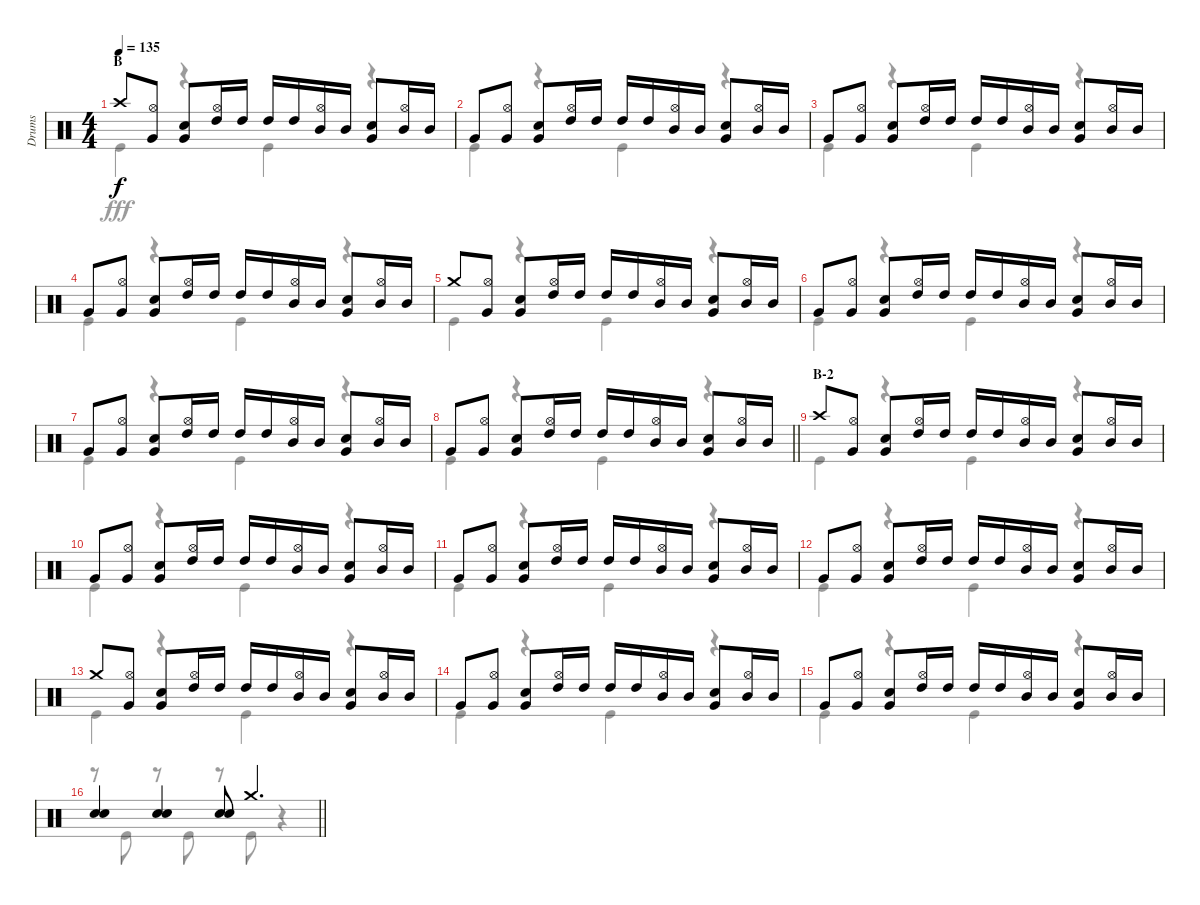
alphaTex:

\track ("Drums" "Drums") {instrument percussion}
\staff {score}
\articulation defaults
\voice
\ts (4 4)
\section ("" "B")
\tempo 135
\clef neutral
\ks c "Crash high (hit)".8{dy f}
("Hi-Hat (open)" "Very Low Tom (hit)").8 ("Snare (hit) 2" "Very Low Tom (hit)").8 ("Hi-Hat (open)" "High Tom (hit)").16 "High Tom (hit)".16 "High Tom (hit)".16 "High Tom (hit)".16 ("Hi-Hat (open)" "Mid Tom (hit)").16 "Mid Tom (hit)".16 ("Snare (hit) 2" "Very Low Tom (hit)").8 ("Hi-Hat (open)" "Mid Tom (hit)").16 "Mid Tom (hit)".16 |
"Very Low Tom (hit)".8 ("Hi-Hat (open)" "Very Low Tom (hit)").8 ("Snare (hit) 2" "Very Low Tom (hit)").8 ("Hi-Hat (open)" "High Tom (hit)").16 "High Tom (hit)".16 "High Tom (hit)".16 "High Tom (hit)".16 ("Hi-Hat (open)" "Mid Tom (hit)").16 "Mid Tom (hit)".16 ("Snare (hit) 2" "Very Low Tom (hit)").8 ("Hi-Hat (open)" "Mid Tom (hit)").16 "Mid Tom (hit)".16 |
"Very Low Tom (hit)".8 ("Hi-Hat (open)" "Very Low Tom (hit)").8 ("Snare (hit) 2" "Very Low Tom (hit)").8 ("Hi-Hat (open)" "High Tom (hit)").16 "High Tom (hit)".16 "High Tom (hit)".16 "High Tom (hit)".16 ("Hi-Hat (open)" "Mid Tom (hit)").16 "Mid Tom (hit)".16 ("Snare (hit) 2" "Very Low Tom (hit)").8 ("Hi-Hat (open)" "Mid Tom (hit)").16 "Mid Tom (hit)".16 |
"Very Low Tom (hit)".8 ("Hi-Hat (open)" "Very Low Tom (hit)").8 ("Snare (hit) 2" "Very Low Tom (hit)").8 ("Hi-Hat (open)" "High Tom (hit)").16 "High Tom (hit)".16 "High Tom (hit)".16 "High Tom (hit)".16 ("Hi-Hat (open)" "Mid Tom (hit)").16 "Mid Tom (hit)".16 ("Snare (hit) 2" "Very Low Tom (hit)").8 ("Hi-Hat (open)" "Mid Tom (hit)").16 "Mid Tom (hit)".16 |
"Crash medium (hit)".8 ("Hi-Hat (open)" "Very Low Tom (hit)").8 ("Snare (hit) 2" "Very Low Tom (hit)").8 ("Hi-Hat (open)" "High Tom (hit)").16 "High Tom (hit)".16 "High Tom (hit)".16 "High Tom (hit)".16 ("Hi-Hat (open)" "Mid Tom (hit)").16 "Mid Tom (hit)".16 ("Snare (hit) 2" "Very Low Tom (hit)").8 ("Hi-Hat (open)" "Mid Tom (hit)").16 "Mid Tom (hit)".16 |
"Very Low Tom (hit)".8 ("Hi-Hat (open)" "Very Low Tom (hit)").8 ("Snare (hit) 2" "Very Low Tom (hit)").8 ("Hi-Hat (open)" "High Tom (hit)").16 "High Tom (hit)".16 "High Tom (hit)".16 "High Tom (hit)".16 ("Hi-Hat (open)" "Mid Tom (hit)").16 "Mid Tom (hit)".16 ("Snare (hit) 2" "Very Low Tom (hit)").8 ("Hi-Hat (open)" "Mid Tom (hit)").16 "Mid Tom (hit)".16 |
"Very Low Tom (hit)".8 ("Hi-Hat (open)" "Very Low Tom (hit)").8 ("Snare (hit) 2" "Very Low Tom (hit)").8 ("Hi-Hat (open)" "High Tom (hit)").16 "High Tom (hit)".16 "High Tom (hit)".16 "High Tom (hit)".16 ("Hi-Hat (open)" "Mid Tom (hit)").16 "Mid Tom (hit)".16 ("Snare (hit) 2" "Very Low Tom (hit)").8 ("Hi-Hat (open)" "Mid Tom (hit)").16 "Mid Tom (hit)".16 |
\barLineRight lightlight "Very Low Tom (hit)".8
("Hi-Hat (open)" "Very Low Tom (hit)").8 ("Snare (hit) 2" "Very Low Tom (hit)").8 ("Hi-Hat (open)" "High Tom (hit)").16 "High Tom (hit)".16 "High Tom (hit)".16 "High Tom (hit)".16 ("Hi-Hat (open)" "Mid Tom (hit)").16 "Mid Tom (hit)".16 ("Snare (hit) 2" "Very Low Tom (hit)").8 ("Hi-Hat (open)" "Mid Tom (hit)").16 "Mid Tom (hit)".16 |
\section ("" "B-2")
"Crash high (hit)".8 ("Hi-Hat (open)" "Very Low Tom (hit)").8 ("Snare (hit) 2" "Very Low Tom (hit)").8 ("Hi-Hat (open)" "High Tom (hit)").16 "High Tom (hit)".16 "High Tom (hit)".16 "High Tom (hit)".16 ("Hi-Hat (open)" "Mid Tom (hit)").16 "Mid Tom (hit)".16 ("Snare (hit) 2" "Very Low Tom (hit)").8 ("Hi-Hat (open)" "Mid Tom (hit)").16 "Mid Tom (hit)".16 |
"Very Low Tom (hit)".8 ("Hi-Hat (open)" "Very Low Tom (hit)").8 ("Snare (hit) 2" "Very Low Tom (hit)").8 ("Hi-Hat (open)" "High Tom (hit)").16 "High Tom (hit)".16 "High Tom (hit)".16 "High Tom (hit)".16 ("Hi-Hat (open)" "Mid Tom (hit)").16 "Mid Tom (hit)".16 ("Snare (hit) 2" "Very Low Tom (hit)").8 ("Hi-Hat (open)" "Mid Tom (hit)").16 "Mid Tom (hit)".16 |
"Very Low Tom (hit)".8 ("Hi-Hat (open)" "Very Low Tom (hit)").8 ("Snare (hit) 2" "Very Low Tom (hit)").8 ("Hi-Hat (open)" "High Tom (hit)").16 "High Tom (hit)".16 "High Tom (hit)".16 "High Tom (hit)".16 ("Hi-Hat (open)" "Mid Tom (hit)").16 "Mid Tom (hit)".16 ("Snare (hit) 2" "Very Low Tom (hit)").8 ("Hi-Hat (open)" "Mid Tom (hit)").16 "Mid Tom (hit)".16 |
"Very Low Tom (hit)".8 ("Hi-Hat (open)" "Very Low Tom (hit)").8 ("Snare (hit) 2" "Very Low Tom (hit)").8 ("Hi-Hat (open)" "High Tom (hit)").16 "High Tom (hit)".16 "High Tom (hit)".16 "High Tom (hit)".16 ("Hi-Hat (open)" "Mid Tom (hit)").16 "Mid Tom (hit)".16 ("Snare (hit) 2" "Very Low Tom (hit)").8 ("Hi-Hat (open)" "Mid Tom (hit)").16 "Mid Tom (hit)".16 |
"Crash medium (hit)".8 ("Hi-Hat (open)" "Very Low Tom (hit)").8 ("Snare (hit) 2" "Very Low Tom (hit)").8 ("Hi-Hat (open)" "High Tom (hit)").16 "High Tom (hit)".16 "High Tom (hit)".16 "High Tom (hit)".16 ("Hi-Hat (open)" "Mid Tom (hit)").16 "Mid Tom (hit)".16 ("Snare (hit) 2" "Very Low Tom (hit)").8 ("Hi-Hat (open)" "Mid Tom (hit)").16 "Mid Tom (hit)".16 |
"Very Low Tom (hit)".8 ("Hi-Hat (open)" "Very Low Tom (hit)").8 ("Snare (hit) 2" "Very Low Tom (hit)").8 ("Hi-Hat (open)" "High Tom (hit)").16 "High Tom (hit)".16 "High Tom (hit)".16 "High Tom (hit)".16 ("Hi-Hat (open)" "Mid Tom (hit)").16 "Mid Tom (hit)".16 ("Snare (hit) 2" "Very Low Tom (hit)").8 ("Hi-Hat (open)" "Mid Tom (hit)").16 "Mid Tom (hit)".16 |
"Very Low Tom (hit)".8 ("Hi-Hat (open)" "Very Low Tom (hit)").8 ("Snare (hit) 2" "Very Low Tom (hit)").8 ("Hi-Hat (open)" "High Tom (hit)").16 "High Tom (hit)".16 "High Tom (hit)".16 "High Tom (hit)".16 ("Hi-Hat (open)" "Mid Tom (hit)").16 "Mid Tom (hit)".16 ("Snare (hit) 2" "Very Low Tom (hit)").8 ("Hi-Hat (open)" "Mid Tom (hit)").16 "Mid Tom (hit)".16 |
\barLineRight lightlight
("Snare (hit) 2" "Snare (hit) 2").4 ("Snare (hit) 2" "Snare (hit) 2").4 ("Snare (hit) 2" "Snare (hit) 2").8 "Crash medium (hit)".4{d}
\voice
\clef neutral
\ottava regular
\simile none
\ks c "Kick (hit)".4{dy fff}
r.4 "Kick (hit)".4 r.4 |
"Kick (hit)".4 r.4 "Kick (hit)".4 r.4 |
"Kick (hit)".4 r.4 "Kick (hit)".4 r.4 |
"Kick (hit)".4 r.4 "Kick (hit)".4 r.4 |
"Kick (hit)".4 r.4 "Kick (hit)".4 r.4 |
"Kick (hit)".4 r.4 "Kick (hit)".4 r.4 |
"Kick (hit)".4 r.4 "Kick (hit)".4 r.4 |
\barLineRight lightlight "Kick (hit)".4
r.4 "Kick (hit)".4 r.4 |
"Kick (hit)".4 r.4 "Kick (hit)".4 r.4 |
"Kick (hit)".4 r.4 "Kick (hit)".4 r.4 |
"Kick (hit)".4 r.4 "Kick (hit)".4 r.4 |
"Kick (hit)".4 r.4 "Kick (hit)".4 r.4 |
"Kick (hit)".4 r.4 "Kick (hit)".4 r.4 |
"Kick (hit)".4 r.4 "Kick (hit)".4 r.4 |
"Kick (hit)".4 r.4 "Kick (hit)".4 r.4 |
\barLineRight lightlight
r.8 "Kick (hit)".8 r.8 "Kick (hit)".8 r.8 "Kick (hit)".8 r.4
